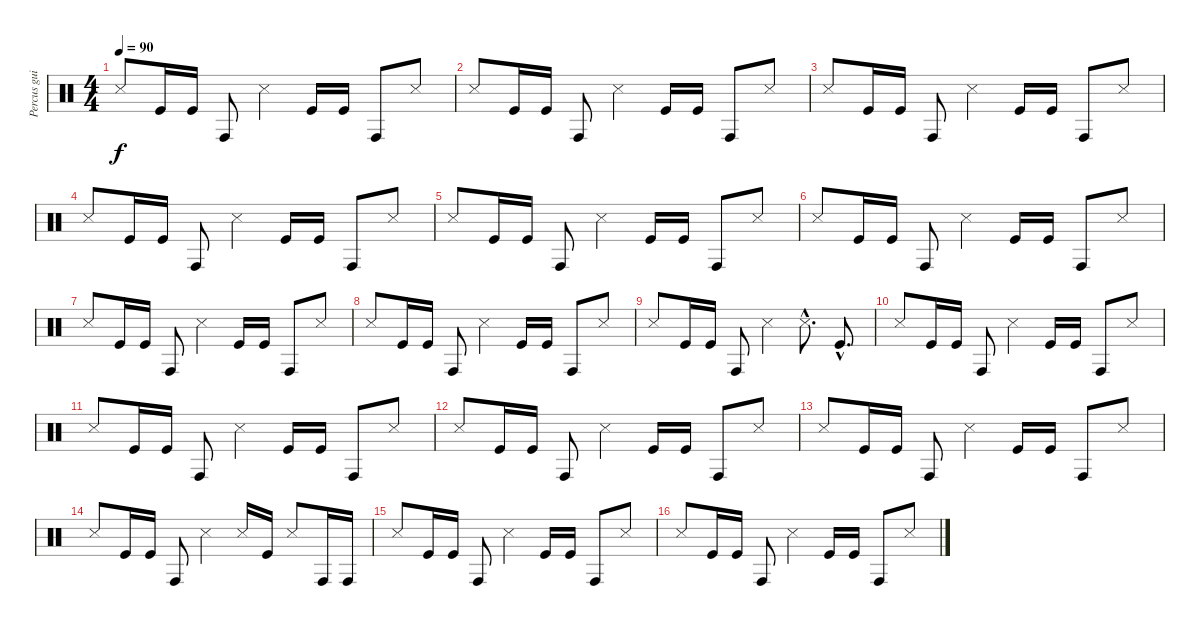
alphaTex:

\track ("Percus guitare" "Percus gui") {instrument percussion}
\staff {score}
\articulation defaults
\ts (4 4)
\tempo 90
\clef neutral
\ks c "Snare (side stick) 3".8{dy f} "Kick (hit)".16 "Kick (hit)".16 "Conga high (hit)".8 "Snare (side stick) 3".4 "Kick (hit)".16 "Kick (hit)".16 "Conga high (hit)".8 "Snare (side stick) 3".8
|
"Snare (side stick) 3".8 "Kick (hit)".16 "Kick (hit)".16 "Conga high (hit)".8 "Snare (side stick) 3".4 "Kick (hit)".16 "Kick (hit)".16 "Conga high (hit)".8 "Snare (side stick) 3".8 |
"Snare (side stick) 3".8 "Kick (hit)".16 "Kick (hit)".16 "Conga high (hit)".8 "Snare (side stick) 3".4 "Kick (hit)".16 "Kick (hit)".16 "Conga high (hit)".8 "Snare (side stick) 3".8 |
"Snare (side stick) 3".8 "Kick (hit)".16 "Kick (hit)".16 "Conga high (hit)".8 "Snare (side stick) 3".4 "Kick (hit)".16 "Kick (hit)".16 "Conga high (hit)".8 "Snare (side stick) 3".8 |
"Snare (side stick) 3".8 "Kick (hit)".16 "Kick (hit)".16 "Conga high (hit)".8 "Snare (side stick) 3".4 "Kick (hit)".16 "Kick (hit)".16 "Conga high (hit)".8 "Snare (side stick) 3".8 |
"Snare (side stick) 3".8 "Kick (hit)".16 "Kick (hit)".16 "Conga high (hit)".8 "Snare (side stick) 3".4 "Kick (hit)".16 "Kick (hit)".16 "Conga high (hit)".8 "Snare (side stick) 3".8 |
"Snare (side stick) 3".8 "Kick (hit)".16 "Kick (hit)".16 "Conga high (hit)".8 "Snare (side stick) 3".4 "Kick (hit)".16 "Kick (hit)".16 "Conga high (hit)".8 "Snare (side stick) 3".8 |
"Snare (side stick) 3".8 "Kick (hit)".16 "Kick (hit)".16 "Conga high (hit)".8 "Snare (side stick) 3".4 "Kick (hit)".16 "Kick (hit)".16 "Conga high (hit)".8 "Snare (side stick) 3".8 |
"Snare (side stick) 3".8 "Kick (hit)".16 "Kick (hit)".16 "Conga high (hit)".8 "Snare (side stick) 3".4 "Snare (side stick) 3"{hac}.8{d} "Kick (hit)"{hac}.8{d} |
"Snare (side stick) 3".8 "Kick (hit)".16 "Kick (hit)".16 "Conga high (hit)".8 "Snare (side stick) 3".4 "Kick (hit)".16 "Kick (hit)".16 "Conga high (hit)".8 "Snare (side stick) 3".8 |
"Snare (side stick) 3".8 "Kick (hit)".16 "Kick (hit)".16 "Conga high (hit)".8 "Snare (side stick) 3".4 "Kick (hit)".16 "Kick (hit)".16 "Conga high (hit)".8 "Snare (side stick) 3".8 |
"Snare (side stick) 3".8 "Kick (hit)".16 "Kick (hit)".16 "Conga high (hit)".8 "Snare (side stick) 3".4 "Kick (hit)".16 "Kick (hit)".16 "Conga high (hit)".8 "Snare (side stick) 3".8 |
"Snare (side stick) 3".8 "Kick (hit)".16 "Kick (hit)".16 "Conga high (hit)".8 "Snare (side stick) 3".4 "Kick (hit)".16 "Kick (hit)".16 "Conga high (hit)".8 "Snare (side stick) 3".8 |
"Snare (side stick) 3".8 "Kick (hit)".16 "Kick (hit)".16 "Conga high (hit)".8 "Snare (side stick) 3".4 "Snare (side stick) 3".16 "Kick (hit)".16 "Snare (side stick) 3".8 "Conga high (hit)".16 "Conga high (hit)".16 |
"Snare (side stick) 3".8 "Kick (hit)".16 "Kick (hit)".16 "Conga high (hit)".8 "Snare (side stick) 3".4 "Kick (hit)".16 "Kick (hit)".16 "Conga high (hit)".8 "Snare (side stick) 3".8 |
"Snare (side stick) 3".8 "Kick (hit)".16 "Kick (hit)".16 "Conga high (hit)".8 "Snare (side stick) 3".4 "Kick (hit)".16 "Kick (hit)".16 "Conga high (hit)".8 "Snare (side stick) 3".8
